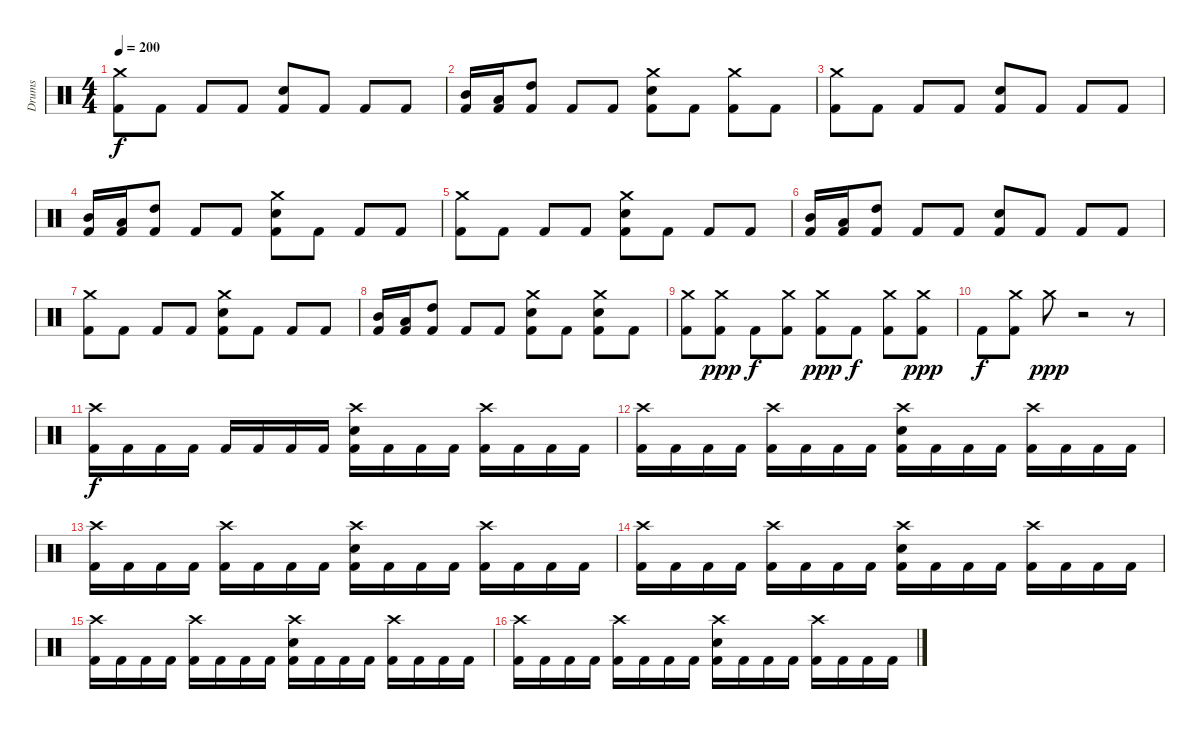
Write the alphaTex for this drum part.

\track ("Drums" "Drums") {instrument percussion}
\staff {score}
\articulation defaults
\ts (4 4)
\tempo 200
\clef neutral
\ks c
("Crash medium (hit)" "Kick (hit) 2").8{dy f} "Kick (hit) 2".8 "Kick (hit) 2".8 "Kick (hit) 2".8 ("Electric Snare (hit)" "Kick (hit) 2").8 "Kick (hit) 2".8 "Kick (hit) 2".8 "Kick (hit) 2".8 |
("Mid Tom (hit)" "Kick (hit) 2").16 ("Low Tom (hit)" "Kick (hit) 2").16 ("High Tom (hit)" "Kick (hit) 2").8 "Kick (hit) 2".8 "Kick (hit) 2".8 ("Crash medium (hit)" "Electric Snare (hit)" "Kick (hit) 2").8 "Kick (hit) 2".8 ("Crash medium (hit)" "Kick (hit) 2").8 "Kick (hit) 2".8 |
("Crash medium (hit)" "Kick (hit) 2").8 "Kick (hit) 2".8 "Kick (hit) 2".8 "Kick (hit) 2".8 ("Electric Snare (hit)" "Kick (hit) 2").8 "Kick (hit) 2".8 "Kick (hit) 2".8 "Kick (hit) 2".8 |
("Mid Tom (hit)" "Kick (hit) 2").16 ("Low Tom (hit)" "Kick (hit) 2").16 ("High Tom (hit)" "Kick (hit) 2").8 "Kick (hit) 2".8 "Kick (hit) 2".8 ("Crash medium (hit)" "Electric Snare (hit)" "Kick (hit) 2").8 "Kick (hit) 2".8 "Kick (hit) 2".8 "Kick (hit) 2".8 |
("Crash medium (hit)" "Kick (hit) 2").8 "Kick (hit) 2".8 "Kick (hit) 2".8 "Kick (hit) 2".8 ("Crash medium (hit)" "Electric Snare (hit)" "Kick (hit) 2").8 "Kick (hit) 2".8 "Kick (hit) 2".8 "Kick (hit) 2".8 |
("Mid Tom (hit)" "Kick (hit) 2").16 ("Low Tom (hit)" "Kick (hit) 2").16 ("High Tom (hit)" "Kick (hit) 2").8 "Kick (hit) 2".8 "Kick (hit) 2".8 ("Electric Snare (hit)" "Kick (hit) 2").8 "Kick (hit) 2".8 "Kick (hit) 2".8 "Kick (hit) 2".8 |
("Crash medium (hit)" "Kick (hit) 2").8 "Kick (hit) 2".8 "Kick (hit) 2".8 "Kick (hit) 2".8 ("Crash medium (hit)" "Electric Snare (hit)" "Kick (hit) 2").8 "Kick (hit) 2".8 "Kick (hit) 2".8 "Kick (hit) 2".8 |
("Mid Tom (hit)" "Kick (hit) 2").16 ("Low Tom (hit)" "Kick (hit) 2").16 ("High Tom (hit)" "Kick (hit) 2").8 "Kick (hit) 2".8 "Kick (hit) 2".8 ("Crash medium (hit)" "Electric Snare (hit)" "Kick (hit) 2").8 "Kick (hit) 2".8 ("Crash medium (hit)" "Electric Snare (hit)" "Kick (hit) 2").8 "Kick (hit) 2".8 |
("Crash medium (hit)" "Kick (hit) 2").8 ("Crash medium (hit)" "Kick (hit) 2").8{dy ppp} "Kick (hit) 2".8{dy f} ("Crash medium (hit)" "Kick (hit) 2").8 ("Crash medium (hit)" "Kick (hit) 2").8{dy ppp} "Kick (hit) 2".8{dy f} ("Crash medium (hit)" "Kick (hit) 2").8 ("Crash medium (hit)" "Kick (hit) 2").8{dy ppp} |
"Kick (hit) 2".8{dy f} ("Crash medium (hit)" "Kick (hit) 2").8 "Crash medium (hit)".8{dy ppp} r.2 r.8 |
("Crash high (hit)" "Kick (hit) 2").16{dy f} "Kick (hit) 2".16 "Kick (hit) 2".16 "Kick (hit) 2".16 "Kick (hit) 2".16 "Kick (hit) 2".16 "Kick (hit) 2".16 "Kick (hit) 2".16 ("Crash high (hit)" "Electric Snare (hit)" "Kick (hit) 2").16 "Kick (hit) 2".16 "Kick (hit) 2".16 "Kick (hit) 2".16 ("Crash high (hit)" "Kick (hit) 2").16 "Kick (hit) 2".16 "Kick (hit) 2".16 "Kick (hit) 2".16 |
("Crash high (hit)" "Kick (hit) 2").16 "Kick (hit) 2".16 "Kick (hit) 2".16 "Kick (hit) 2".16 ("Crash high (hit)" "Kick (hit) 2").16 "Kick (hit) 2".16 "Kick (hit) 2".16 "Kick (hit) 2".16 ("Crash high (hit)" "Electric Snare (hit)" "Kick (hit) 2").16 "Kick (hit) 2".16 "Kick (hit) 2".16 "Kick (hit) 2".16 ("Crash high (hit)" "Kick (hit) 2").16 "Kick (hit) 2".16 "Kick (hit) 2".16 "Kick (hit) 2".16 |
("Crash high (hit)" "Kick (hit) 2").16 "Kick (hit) 2".16 "Kick (hit) 2".16 "Kick (hit) 2".16 ("Crash high (hit)" "Kick (hit) 2").16 "Kick (hit) 2".16 "Kick (hit) 2".16 "Kick (hit) 2".16 ("Crash high (hit)" "Electric Snare (hit)" "Kick (hit) 2").16 "Kick (hit) 2".16 "Kick (hit) 2".16 "Kick (hit) 2".16 ("Crash high (hit)" "Kick (hit) 2").16 "Kick (hit) 2".16 "Kick (hit) 2".16 "Kick (hit) 2".16 |
("Crash high (hit)" "Kick (hit) 2").16 "Kick (hit) 2".16 "Kick (hit) 2".16 "Kick (hit) 2".16 ("Crash high (hit)" "Kick (hit) 2").16 "Kick (hit) 2".16 "Kick (hit) 2".16 "Kick (hit) 2".16 ("Crash high (hit)" "Electric Snare (hit)" "Kick (hit) 2").16 "Kick (hit) 2".16 "Kick (hit) 2".16 "Kick (hit) 2".16 ("Crash high (hit)" "Kick (hit) 2").16 "Kick (hit) 2".16 "Kick (hit) 2".16 "Kick (hit) 2".16 |
("Crash high (hit)" "Kick (hit) 2").16 "Kick (hit) 2".16 "Kick (hit) 2".16 "Kick (hit) 2".16 ("Crash high (hit)" "Kick (hit) 2").16 "Kick (hit) 2".16 "Kick (hit) 2".16 "Kick (hit) 2".16 ("Crash high (hit)" "Electric Snare (hit)" "Kick (hit) 2").16 "Kick (hit) 2".16 "Kick (hit) 2".16 "Kick (hit) 2".16 ("Crash high (hit)" "Kick (hit) 2").16 "Kick (hit) 2".16 "Kick (hit) 2".16 "Kick (hit) 2".16 |
("Crash high (hit)" "Kick (hit) 2").16 "Kick (hit) 2".16 "Kick (hit) 2".16 "Kick (hit) 2".16 ("Crash high (hit)" "Kick (hit) 2").16 "Kick (hit) 2".16 "Kick (hit) 2".16 "Kick (hit) 2".16 ("Crash high (hit)" "Electric Snare (hit)" "Kick (hit) 2").16 "Kick (hit) 2".16 "Kick (hit) 2".16 "Kick (hit) 2".16 ("Crash high (hit)" "Kick (hit) 2").16 "Kick (hit) 2".16 "Kick (hit) 2".16 "Kick (hit) 2".16
